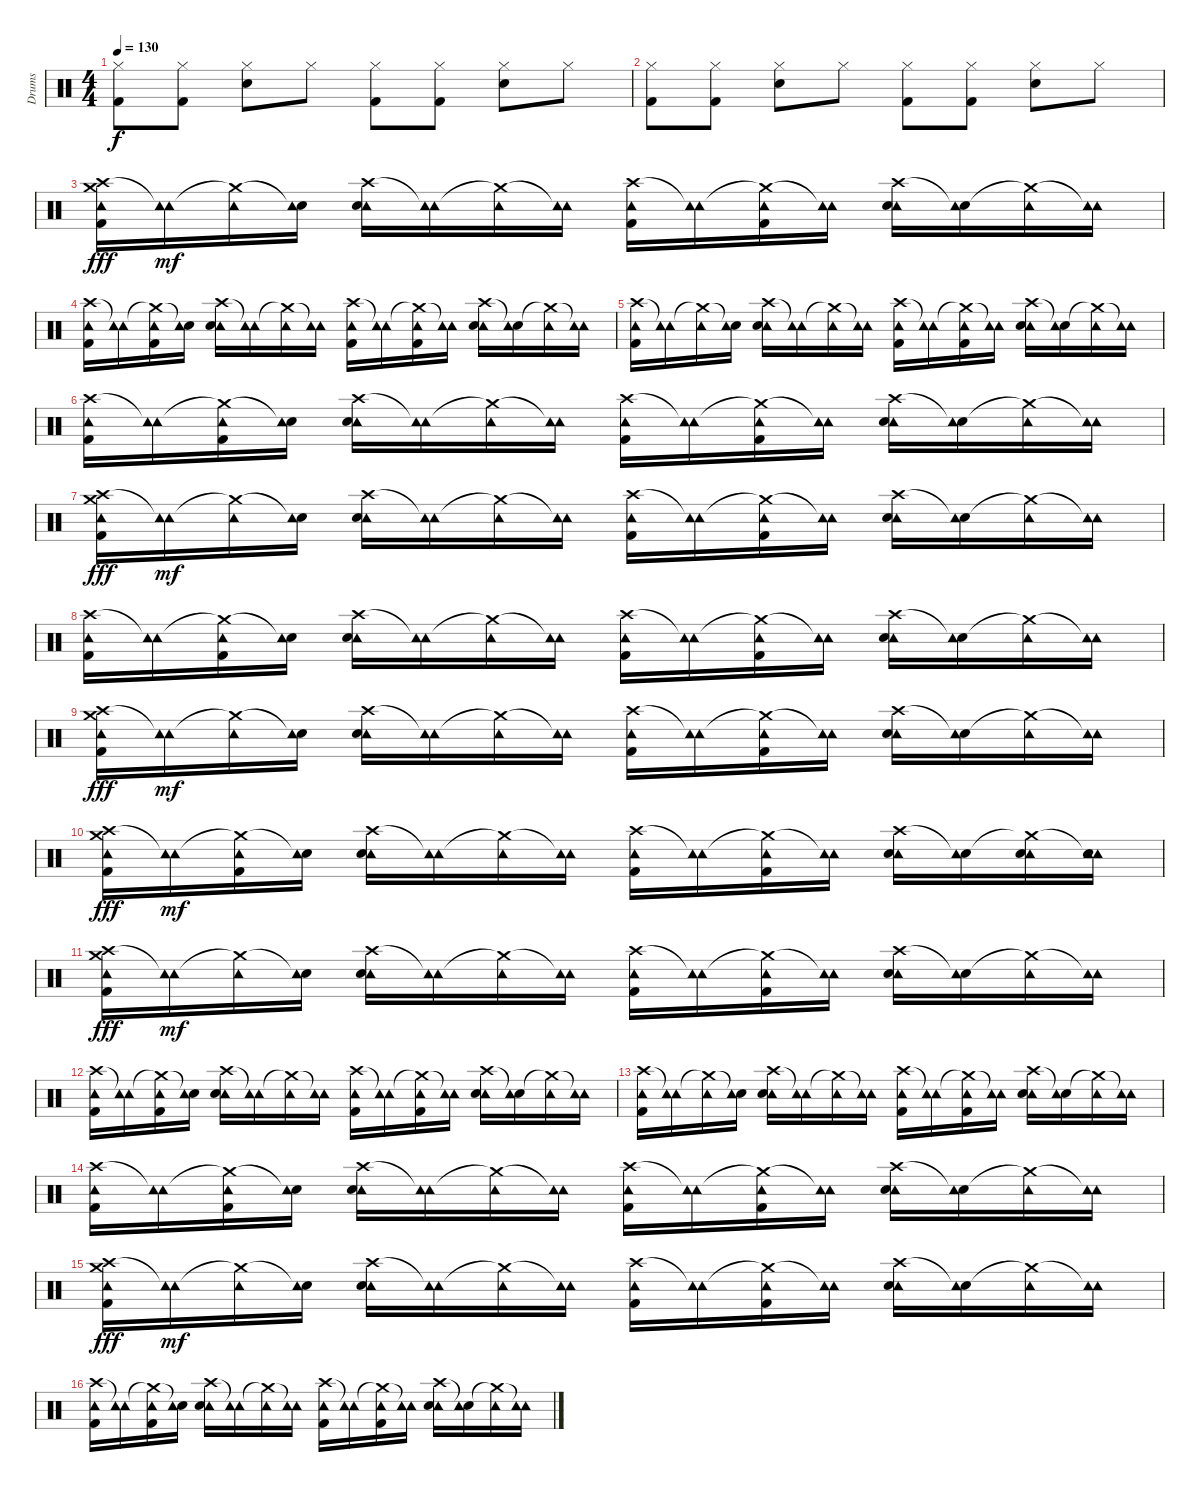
\track ("Drums" "Drums") {instrument percussion}
\staff {score}
\articulation defaults
\ts (4 4)
\tempo 130
\clef neutral
\ks c
("Hi-Hat (closed)" "Kick (hit) 2").8{dy f} ("Hi-Hat (closed)" "Kick (hit) 2").8 ("Hi-Hat (closed)" "Snare (hit) 2").8 "Hi-Hat (closed)".8 ("Hi-Hat (closed)" "Kick (hit) 2").8 ("Hi-Hat (closed)" "Kick (hit) 2").8 ("Hi-Hat (closed)" "Snare (hit) 2").8 "Hi-Hat (closed)".8 |
("Hi-Hat (closed)" "Kick (hit) 2").8 ("Hi-Hat (closed)" "Kick (hit) 2").8 ("Hi-Hat (closed)" "Snare (hit) 2").8 "Hi-Hat (closed)".8 ("Hi-Hat (closed)" "Kick (hit) 2").8 ("Hi-Hat (closed)" "Kick (hit) 2").8 ("Hi-Hat (closed)" "Snare (hit) 2").8 "Hi-Hat (closed)".8 |
\section ("" "")
("Crash high (hit)" "Tambourine (hit)" "Crash medium (hit)" "Kick (hit) 2").16{dy fff} ("Tambourine (hit)"{t} "Tambourine (hit)").16{dy mf} ("Crash medium (hit)"{t} "Tambourine (hit)").16 ("Snare (hit)"{t} "Tambourine (hit)").16 ("Crash high (hit)" "Tambourine (hit)" "Snare (hit) 2").16 ("Tambourine (hit)"{t} "Tambourine (hit)").16 ("Crash medium (hit)"{t} "Tambourine (hit)").16 ("Tambourine (hit)"{t} "Tambourine (hit)").16 ("Crash high (hit)" "Tambourine (hit)" "Kick (hit) 2").16 ("Tambourine (hit)"{t} "Tambourine (hit)").16 ("Crash medium (hit)"{t} "Tambourine (hit)" "Kick (hit) 2").16 ("Tambourine (hit)"{t} "Tambourine (hit)").16 ("Crash high (hit)" "Tambourine (hit)" "Snare (hit) 2").16 ("Snare (hit)"{t} "Tambourine (hit)").16 ("Crash medium (hit)"{t} "Tambourine (hit)").16 ("Tambourine (hit)"{t} "Tambourine (hit)").16 |
("Crash high (hit)" "Tambourine (hit)" "Kick (hit) 2").16 ("Tambourine (hit)"{t} "Tambourine (hit)").16 ("Crash medium (hit)"{t} "Tambourine (hit)" "Kick (hit) 2").16 ("Snare (hit)"{t} "Tambourine (hit)").16 ("Crash high (hit)" "Tambourine (hit)" "Snare (hit) 2").16 ("Tambourine (hit)"{t} "Tambourine (hit)").16 ("Crash medium (hit)"{t} "Tambourine (hit)").16 ("Tambourine (hit)"{t} "Tambourine (hit)").16 ("Crash high (hit)" "Tambourine (hit)" "Kick (hit) 2").16 ("Tambourine (hit)"{t} "Tambourine (hit)").16 ("Crash medium (hit)"{t} "Tambourine (hit)" "Kick (hit) 2").16 ("Tambourine (hit)"{t} "Tambourine (hit)").16 ("Crash high (hit)" "Tambourine (hit)" "Snare (hit) 2").16 ("Snare (hit)"{t} "Tambourine (hit)").16 ("Crash medium (hit)"{t} "Tambourine (hit)").16 ("Tambourine (hit)"{t} "Tambourine (hit)").16 |
("Crash high (hit)" "Tambourine (hit)" "Kick (hit) 2").16 ("Tambourine (hit)"{t} "Tambourine (hit)").16 ("Crash medium (hit)"{t} "Tambourine (hit)").16 ("Snare (hit)"{t} "Tambourine (hit)").16 ("Crash high (hit)" "Tambourine (hit)" "Snare (hit) 2").16 ("Tambourine (hit)"{t} "Tambourine (hit)").16 ("Crash medium (hit)"{t} "Tambourine (hit)").16 ("Tambourine (hit)"{t} "Tambourine (hit)").16 ("Crash high (hit)" "Tambourine (hit)" "Kick (hit) 2").16 ("Tambourine (hit)"{t} "Tambourine (hit)").16 ("Crash medium (hit)"{t} "Tambourine (hit)" "Kick (hit) 2").16 ("Tambourine (hit)"{t} "Tambourine (hit)").16 ("Crash high (hit)" "Tambourine (hit)" "Snare (hit) 2").16 ("Snare (hit)"{t} "Tambourine (hit)").16 ("Crash medium (hit)"{t} "Tambourine (hit)").16 ("Tambourine (hit)"{t} "Tambourine (hit)").16 |
("Crash high (hit)" "Tambourine (hit)" "Kick (hit) 2").16 ("Tambourine (hit)"{t} "Tambourine (hit)").16 ("Crash medium (hit)"{t} "Tambourine (hit)" "Kick (hit) 2").16 ("Snare (hit)"{t} "Tambourine (hit)").16 ("Crash high (hit)" "Tambourine (hit)" "Snare (hit) 2").16 ("Tambourine (hit)"{t} "Tambourine (hit)").16 ("Crash medium (hit)"{t} "Tambourine (hit)").16 ("Tambourine (hit)"{t} "Tambourine (hit)").16 ("Crash high (hit)" "Tambourine (hit)" "Kick (hit) 2").16 ("Tambourine (hit)"{t} "Tambourine (hit)").16 ("Crash medium (hit)"{t} "Tambourine (hit)" "Kick (hit) 2").16 ("Tambourine (hit)"{t} "Tambourine (hit)").16 ("Crash high (hit)" "Tambourine (hit)" "Snare (hit) 2").16 ("Snare (hit)"{t} "Tambourine (hit)").16 ("Crash medium (hit)"{t} "Tambourine (hit)").16 ("Tambourine (hit)"{t} "Tambourine (hit)").16 |
("Crash high (hit)" "Tambourine (hit)" "Crash medium (hit)" "Kick (hit) 2").16{dy fff} ("Tambourine (hit)"{t} "Tambourine (hit)").16{dy mf} ("Crash medium (hit)"{t} "Tambourine (hit)").16 ("Snare (hit)"{t} "Tambourine (hit)").16 ("Crash high (hit)" "Tambourine (hit)" "Snare (hit) 2").16 ("Tambourine (hit)"{t} "Tambourine (hit)").16 ("Crash medium (hit)"{t} "Tambourine (hit)").16 ("Tambourine (hit)"{t} "Tambourine (hit)").16 ("Crash high (hit)" "Tambourine (hit)" "Kick (hit) 2").16 ("Tambourine (hit)"{t} "Tambourine (hit)").16 ("Crash medium (hit)"{t} "Tambourine (hit)" "Kick (hit) 2").16 ("Tambourine (hit)"{t} "Tambourine (hit)").16 ("Crash high (hit)" "Tambourine (hit)" "Snare (hit) 2").16 ("Snare (hit)"{t} "Tambourine (hit)").16 ("Crash medium (hit)"{t} "Tambourine (hit)").16 ("Tambourine (hit)"{t} "Tambourine (hit)").16 |
("Crash high (hit)" "Tambourine (hit)" "Kick (hit) 2").16 ("Tambourine (hit)"{t} "Tambourine (hit)").16 ("Crash medium (hit)"{t} "Tambourine (hit)" "Kick (hit) 2").16 ("Snare (hit)"{t} "Tambourine (hit)").16 ("Crash high (hit)" "Tambourine (hit)" "Snare (hit) 2").16 ("Tambourine (hit)"{t} "Tambourine (hit)").16 ("Crash medium (hit)"{t} "Tambourine (hit)").16 ("Tambourine (hit)"{t} "Tambourine (hit)").16 ("Crash high (hit)" "Tambourine (hit)" "Kick (hit) 2").16 ("Tambourine (hit)"{t} "Tambourine (hit)").16 ("Crash medium (hit)"{t} "Tambourine (hit)" "Kick (hit) 2").16 ("Tambourine (hit)"{t} "Tambourine (hit)").16 ("Crash high (hit)" "Tambourine (hit)" "Snare (hit) 2").16 ("Snare (hit)"{t} "Tambourine (hit)").16 ("Crash medium (hit)"{t} "Tambourine (hit)").16 ("Tambourine (hit)"{t} "Tambourine (hit)").16 |
("Crash high (hit)" "Tambourine (hit)" "Crash medium (hit)" "Kick (hit) 2").16{dy fff} ("Tambourine (hit)"{t} "Tambourine (hit)").16{dy mf} ("Crash medium (hit)"{t} "Tambourine (hit)").16 ("Snare (hit)"{t} "Tambourine (hit)").16 ("Crash high (hit)" "Tambourine (hit)" "Snare (hit) 2").16 ("Tambourine (hit)"{t} "Tambourine (hit)").16 ("Crash medium (hit)"{t} "Tambourine (hit)").16 ("Tambourine (hit)"{t} "Tambourine (hit)").16 ("Crash high (hit)" "Tambourine (hit)" "Kick (hit) 2").16 ("Tambourine (hit)"{t} "Tambourine (hit)").16 ("Crash medium (hit)"{t} "Tambourine (hit)" "Kick (hit) 2").16 ("Tambourine (hit)"{t} "Tambourine (hit)").16 ("Crash high (hit)" "Tambourine (hit)" "Snare (hit) 2").16 ("Snare (hit)"{t} "Tambourine (hit)").16 ("Crash medium (hit)"{t} "Tambourine (hit)").16 ("Tambourine (hit)"{t} "Tambourine (hit)").16 |
("Crash high (hit)" "Tambourine (hit)" "Crash medium (hit)" "Kick (hit) 2").16{dy fff} ("Tambourine (hit)"{t} "Tambourine (hit)").16{dy mf} ("Crash medium (hit)"{t} "Tambourine (hit)" "Kick (hit) 2").16 ("Snare (hit)"{t} "Tambourine (hit)").16 ("Crash high (hit)" "Tambourine (hit)" "Snare (hit) 2").16 ("Tambourine (hit)"{t} "Tambourine (hit)").16 ("Crash medium (hit)"{t} "Tambourine (hit)").16 ("Tambourine (hit)"{t} "Tambourine (hit)").16 ("Crash high (hit)" "Tambourine (hit)" "Kick (hit) 2").16 ("Tambourine (hit)"{t} "Tambourine (hit)").16 ("Crash medium (hit)"{t} "Tambourine (hit)" "Kick (hit) 2").16 ("Tambourine (hit)"{t} "Tambourine (hit)").16 ("Crash high (hit)" "Tambourine (hit)" "Snare (hit) 2").16 ("Snare (hit)"{t} "Tambourine (hit)").16 ("Crash medium (hit)"{t} "Tambourine (hit)" "Snare (hit) 2").16 ("Tambourine (hit)"{t} "Tambourine (hit)" "Snare (hit) 2").16 |
("Crash high (hit)" "Tambourine (hit)" "Crash medium (hit)" "Kick (hit) 2").16{dy fff} ("Tambourine (hit)"{t} "Tambourine (hit)").16{dy mf} ("Crash medium (hit)"{t} "Tambourine (hit)").16 ("Snare (hit)"{t} "Tambourine (hit)").16 ("Crash high (hit)" "Tambourine (hit)" "Snare (hit) 2").16 ("Tambourine (hit)"{t} "Tambourine (hit)").16 ("Crash medium (hit)"{t} "Tambourine (hit)").16 ("Tambourine (hit)"{t} "Tambourine (hit)").16 ("Crash high (hit)" "Tambourine (hit)" "Kick (hit) 2").16 ("Tambourine (hit)"{t} "Tambourine (hit)").16 ("Crash medium (hit)"{t} "Tambourine (hit)" "Kick (hit) 2").16 ("Tambourine (hit)"{t} "Tambourine (hit)").16 ("Crash high (hit)" "Tambourine (hit)" "Snare (hit) 2").16 ("Snare (hit)"{t} "Tambourine (hit)").16 ("Crash medium (hit)"{t} "Tambourine (hit)").16 ("Tambourine (hit)"{t} "Tambourine (hit)").16 |
("Crash high (hit)" "Tambourine (hit)" "Kick (hit) 2").16 ("Tambourine (hit)"{t} "Tambourine (hit)").16 ("Crash medium (hit)"{t} "Tambourine (hit)" "Kick (hit) 2").16 ("Snare (hit)"{t} "Tambourine (hit)").16 ("Crash high (hit)" "Tambourine (hit)" "Snare (hit) 2").16 ("Tambourine (hit)"{t} "Tambourine (hit)").16 ("Crash medium (hit)"{t} "Tambourine (hit)").16 ("Tambourine (hit)"{t} "Tambourine (hit)").16 ("Crash high (hit)" "Tambourine (hit)" "Kick (hit) 2").16 ("Tambourine (hit)"{t} "Tambourine (hit)").16 ("Crash medium (hit)"{t} "Tambourine (hit)" "Kick (hit) 2").16 ("Tambourine (hit)"{t} "Tambourine (hit)").16 ("Crash high (hit)" "Tambourine (hit)" "Snare (hit) 2").16 ("Snare (hit)"{t} "Tambourine (hit)").16 ("Crash medium (hit)"{t} "Tambourine (hit)").16 ("Tambourine (hit)"{t} "Tambourine (hit)").16 |
("Crash high (hit)" "Tambourine (hit)" "Kick (hit) 2").16 ("Tambourine (hit)"{t} "Tambourine (hit)").16 ("Crash medium (hit)"{t} "Tambourine (hit)").16 ("Snare (hit)"{t} "Tambourine (hit)").16 ("Crash high (hit)" "Tambourine (hit)" "Snare (hit) 2").16 ("Tambourine (hit)"{t} "Tambourine (hit)").16 ("Crash medium (hit)"{t} "Tambourine (hit)").16 ("Tambourine (hit)"{t} "Tambourine (hit)").16 ("Crash high (hit)" "Tambourine (hit)" "Kick (hit) 2").16 ("Tambourine (hit)"{t} "Tambourine (hit)").16 ("Crash medium (hit)"{t} "Tambourine (hit)" "Kick (hit) 2").16 ("Tambourine (hit)"{t} "Tambourine (hit)").16 ("Crash high (hit)" "Tambourine (hit)" "Snare (hit) 2").16 ("Snare (hit)"{t} "Tambourine (hit)").16 ("Crash medium (hit)"{t} "Tambourine (hit)").16 ("Tambourine (hit)"{t} "Tambourine (hit)").16 |
("Crash high (hit)" "Tambourine (hit)" "Kick (hit) 2").16 ("Tambourine (hit)"{t} "Tambourine (hit)").16 ("Crash medium (hit)"{t} "Tambourine (hit)" "Kick (hit) 2").16 ("Snare (hit)"{t} "Tambourine (hit)").16 ("Crash high (hit)" "Tambourine (hit)" "Snare (hit) 2").16 ("Tambourine (hit)"{t} "Tambourine (hit)").16 ("Crash medium (hit)"{t} "Tambourine (hit)").16 ("Tambourine (hit)"{t} "Tambourine (hit)").16 ("Crash high (hit)" "Tambourine (hit)" "Kick (hit) 2").16 ("Tambourine (hit)"{t} "Tambourine (hit)").16 ("Crash medium (hit)"{t} "Tambourine (hit)" "Kick (hit) 2").16 ("Tambourine (hit)"{t} "Tambourine (hit)").16 ("Crash high (hit)" "Tambourine (hit)" "Snare (hit) 2").16 ("Snare (hit)"{t} "Tambourine (hit)").16 ("Crash medium (hit)"{t} "Tambourine (hit)").16 ("Tambourine (hit)"{t} "Tambourine (hit)").16 |
("Crash high (hit)" "Tambourine (hit)" "Crash medium (hit)" "Kick (hit) 2").16{dy fff} ("Tambourine (hit)"{t} "Tambourine (hit)").16{dy mf} ("Crash medium (hit)"{t} "Tambourine (hit)").16 ("Snare (hit)"{t} "Tambourine (hit)").16 ("Crash high (hit)" "Tambourine (hit)" "Snare (hit) 2").16 ("Tambourine (hit)"{t} "Tambourine (hit)").16 ("Crash medium (hit)"{t} "Tambourine (hit)").16 ("Tambourine (hit)"{t} "Tambourine (hit)").16 ("Crash high (hit)" "Tambourine (hit)" "Kick (hit) 2").16 ("Tambourine (hit)"{t} "Tambourine (hit)").16 ("Crash medium (hit)"{t} "Tambourine (hit)" "Kick (hit) 2").16 ("Tambourine (hit)"{t} "Tambourine (hit)").16 ("Crash high (hit)" "Tambourine (hit)" "Snare (hit) 2").16 ("Snare (hit)"{t} "Tambourine (hit)").16 ("Crash medium (hit)"{t} "Tambourine (hit)").16 ("Tambourine (hit)"{t} "Tambourine (hit)").16 |
("Crash high (hit)" "Tambourine (hit)" "Kick (hit) 2").16 ("Tambourine (hit)"{t} "Tambourine (hit)").16 ("Crash medium (hit)"{t} "Tambourine (hit)" "Kick (hit) 2").16 ("Snare (hit)"{t} "Tambourine (hit)").16 ("Crash high (hit)" "Tambourine (hit)" "Snare (hit) 2").16 ("Tambourine (hit)"{t} "Tambourine (hit)").16 ("Crash medium (hit)"{t} "Tambourine (hit)").16 ("Tambourine (hit)"{t} "Tambourine (hit)").16 ("Crash high (hit)" "Tambourine (hit)" "Kick (hit) 2").16 ("Tambourine (hit)"{t} "Tambourine (hit)").16 ("Crash medium (hit)"{t} "Tambourine (hit)" "Kick (hit) 2").16 ("Tambourine (hit)"{t} "Tambourine (hit)").16 ("Crash high (hit)" "Tambourine (hit)" "Snare (hit) 2").16 ("Snare (hit)"{t} "Tambourine (hit)").16 ("Crash medium (hit)"{t} "Tambourine (hit)").16 ("Tambourine (hit)"{t} "Tambourine (hit)").16
